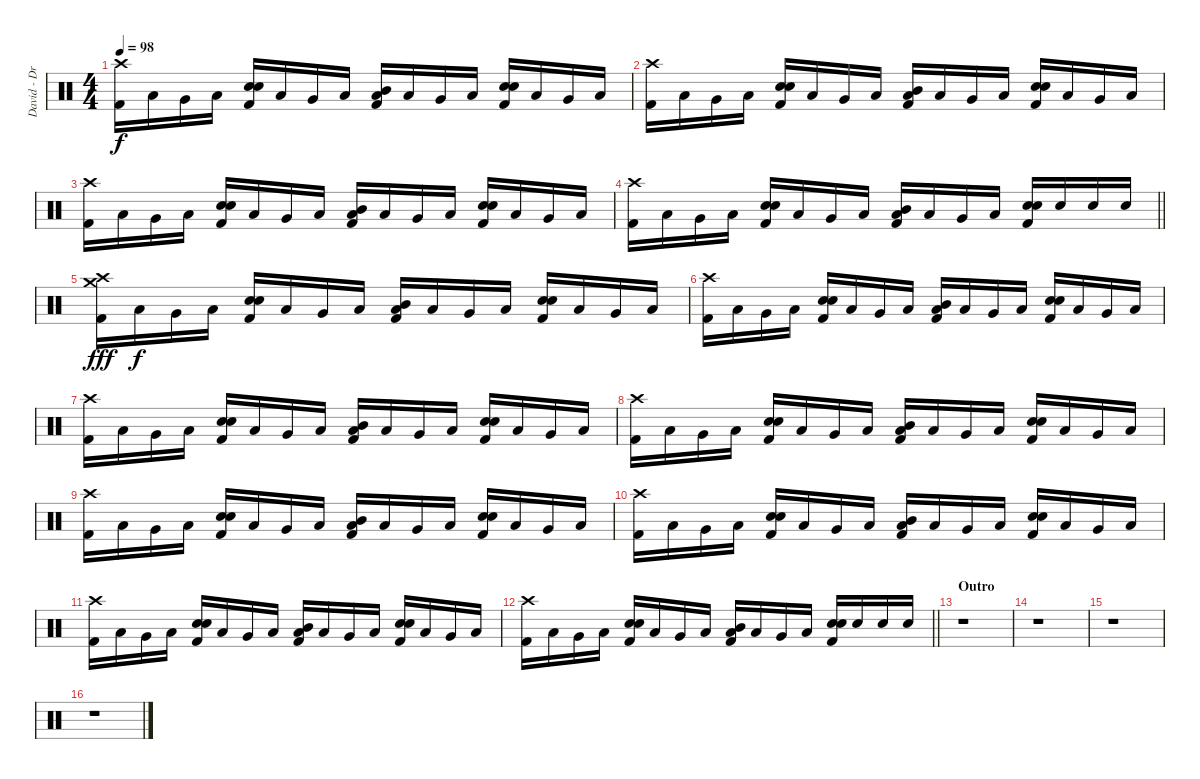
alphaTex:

\track ("David - Drums" "David - Dr") {instrument percussion}
\staff {score}
\articulation defaults
\ts (4 4)
\tempo 98
\clef neutral
\ks c
("Crash high (hit)" "Kick (hit) 2").16{dy f} "Low Tom (hit)".16 "Very Low Tom (hit)".16 "Low Floor Tom (hit)".16 ("Electric Snare (hit)" "Electric Snare (hit)" "Kick (hit) 2").16{bd 240} "Low Tom (hit)".16 "Very Low Tom (hit)".16 "Low Floor Tom (hit)".16 ("Mid Tom (hit)" "Low Tom (hit)" "Kick (hit) 2").16{bd 240} "Low Tom (hit)".16 "Very Low Tom (hit)".16 "Low Floor Tom (hit)".16 ("Electric Snare (hit)" "Electric Snare (hit)" "Kick (hit) 2").16{bd 240} "Low Tom (hit)".16 "Very Low Tom (hit)".16 "Low Floor Tom (hit)".16 |
("Crash high (hit)" "Kick (hit) 2").16 "Low Tom (hit)".16 "Very Low Tom (hit)".16 "Low Floor Tom (hit)".16 ("Electric Snare (hit)" "Electric Snare (hit)" "Kick (hit) 2").16{bd 240} "Low Tom (hit)".16 "Very Low Tom (hit)".16 "Low Floor Tom (hit)".16 ("Mid Tom (hit)" "Low Tom (hit)" "Kick (hit) 2").16{bd 240} "Low Tom (hit)".16 "Very Low Tom (hit)".16 "Low Floor Tom (hit)".16 ("Electric Snare (hit)" "Electric Snare (hit)" "Kick (hit) 2").16{bd 240} "Low Tom (hit)".16 "Very Low Tom (hit)".16 "Low Floor Tom (hit)".16 |
("Crash high (hit)" "Kick (hit) 2").16 "Low Tom (hit)".16 "Very Low Tom (hit)".16 "Low Floor Tom (hit)".16 ("Electric Snare (hit)" "Electric Snare (hit)" "Kick (hit) 2").16{bd 240} "Low Tom (hit)".16 "Very Low Tom (hit)".16 "Low Floor Tom (hit)".16 ("Mid Tom (hit)" "Low Tom (hit)" "Kick (hit) 2").16{bd 240} "Low Tom (hit)".16 "Very Low Tom (hit)".16 "Low Floor Tom (hit)".16 ("Electric Snare (hit)" "Electric Snare (hit)" "Kick (hit) 2").16{bd 240} "Low Tom (hit)".16 "Very Low Tom (hit)".16 "Low Floor Tom (hit)".16 |
\barLineRight lightlight
("Crash high (hit)" "Kick (hit) 2").16 "Low Tom (hit)".16 "Very Low Tom (hit)".16 "Low Floor Tom (hit)".16 ("Electric Snare (hit)" "Electric Snare (hit)" "Kick (hit) 2").16{bd 240} "Low Tom (hit)".16 "Very Low Tom (hit)".16 "Low Floor Tom (hit)".16 ("Mid Tom (hit)" "Low Tom (hit)" "Kick (hit) 2").16{bd 240} "Low Tom (hit)".16 "Very Low Tom (hit)".16 "Low Floor Tom (hit)".16 ("Electric Snare (hit)" "Electric Snare (hit)" "Kick (hit) 2").16{bd 240} "Electric Snare (hit)".16 "Electric Snare (hit)".16 "Electric Snare (hit)".16 |
("Crash medium (hit)" "Crash high (hit)" "Kick (hit) 2").16{dy fff} "Low Tom (hit)".16{dy f} "Very Low Tom (hit)".16 "Low Floor Tom (hit)".16 ("Electric Snare (hit)" "Electric Snare (hit)" "Kick (hit) 2").16{bd 240} "Low Tom (hit)".16 "Very Low Tom (hit)".16 "Low Floor Tom (hit)".16 ("Mid Tom (hit)" "Low Tom (hit)" "Kick (hit) 2").16{bd 240} "Low Tom (hit)".16 "Very Low Tom (hit)".16 "Low Floor Tom (hit)".16 ("Electric Snare (hit)" "Electric Snare (hit)" "Kick (hit) 2").16{bd 240} "Low Tom (hit)".16 "Very Low Tom (hit)".16 "Low Floor Tom (hit)".16 |
("Crash high (hit)" "Kick (hit) 2").16 "Low Tom (hit)".16 "Very Low Tom (hit)".16 "Low Floor Tom (hit)".16 ("Electric Snare (hit)" "Electric Snare (hit)" "Kick (hit) 2").16{bd 240} "Low Tom (hit)".16 "Very Low Tom (hit)".16 "Low Floor Tom (hit)".16 ("Mid Tom (hit)" "Low Tom (hit)" "Kick (hit) 2").16{bd 240} "Low Tom (hit)".16 "Very Low Tom (hit)".16 "Low Floor Tom (hit)".16 ("Electric Snare (hit)" "Electric Snare (hit)" "Kick (hit) 2").16{bd 240} "Low Tom (hit)".16 "Very Low Tom (hit)".16 "Low Floor Tom (hit)".16 |
("Crash high (hit)" "Kick (hit) 2").16 "Low Tom (hit)".16 "Very Low Tom (hit)".16 "Low Floor Tom (hit)".16 ("Electric Snare (hit)" "Electric Snare (hit)" "Kick (hit) 2").16{bd 240} "Low Tom (hit)".16 "Very Low Tom (hit)".16 "Low Floor Tom (hit)".16 ("Mid Tom (hit)" "Low Tom (hit)" "Kick (hit) 2").16{bd 240} "Low Tom (hit)".16 "Very Low Tom (hit)".16 "Low Floor Tom (hit)".16 ("Electric Snare (hit)" "Electric Snare (hit)" "Kick (hit) 2").16{bd 240} "Low Tom (hit)".16 "Very Low Tom (hit)".16 "Low Floor Tom (hit)".16 |
("Crash high (hit)" "Kick (hit) 2").16 "Low Tom (hit)".16 "Very Low Tom (hit)".16 "Low Floor Tom (hit)".16 ("Electric Snare (hit)" "Electric Snare (hit)" "Kick (hit) 2").16{bd 240} "Low Tom (hit)".16 "Very Low Tom (hit)".16 "Low Floor Tom (hit)".16 ("Mid Tom (hit)" "Low Tom (hit)" "Kick (hit) 2").16{bd 240} "Low Tom (hit)".16 "Very Low Tom (hit)".16 "Low Floor Tom (hit)".16 ("Electric Snare (hit)" "Electric Snare (hit)" "Kick (hit) 2").16{bd 240} "Low Tom (hit)".16 "Very Low Tom (hit)".16 "Low Floor Tom (hit)".16 |
("Crash high (hit)" "Kick (hit) 2").16 "Low Tom (hit)".16 "Very Low Tom (hit)".16 "Low Floor Tom (hit)".16 ("Electric Snare (hit)" "Electric Snare (hit)" "Kick (hit) 2").16{bd 240} "Low Tom (hit)".16 "Very Low Tom (hit)".16 "Low Floor Tom (hit)".16 ("Mid Tom (hit)" "Low Tom (hit)" "Kick (hit) 2").16{bd 240} "Low Tom (hit)".16 "Very Low Tom (hit)".16 "Low Floor Tom (hit)".16 ("Electric Snare (hit)" "Electric Snare (hit)" "Kick (hit) 2").16{bd 240} "Low Tom (hit)".16 "Very Low Tom (hit)".16 "Low Floor Tom (hit)".16 |
("Crash high (hit)" "Kick (hit) 2").16 "Low Tom (hit)".16 "Very Low Tom (hit)".16 "Low Floor Tom (hit)".16 ("Electric Snare (hit)" "Electric Snare (hit)" "Kick (hit) 2").16{bd 240} "Low Tom (hit)".16 "Very Low Tom (hit)".16 "Low Floor Tom (hit)".16 ("Mid Tom (hit)" "Low Tom (hit)" "Kick (hit) 2").16{bd 240} "Low Tom (hit)".16 "Very Low Tom (hit)".16 "Low Floor Tom (hit)".16 ("Electric Snare (hit)" "Electric Snare (hit)" "Kick (hit) 2").16{bd 240} "Low Tom (hit)".16 "Very Low Tom (hit)".16 "Low Floor Tom (hit)".16 |
("Crash high (hit)" "Kick (hit) 2").16 "Low Tom (hit)".16 "Very Low Tom (hit)".16 "Low Floor Tom (hit)".16 ("Electric Snare (hit)" "Electric Snare (hit)" "Kick (hit) 2").16{bd 240} "Low Tom (hit)".16 "Very Low Tom (hit)".16 "Low Floor Tom (hit)".16 ("Mid Tom (hit)" "Low Tom (hit)" "Kick (hit) 2").16{bd 240} "Low Tom (hit)".16 "Very Low Tom (hit)".16 "Low Floor Tom (hit)".16 ("Electric Snare (hit)" "Electric Snare (hit)" "Kick (hit) 2").16{bd 240} "Low Tom (hit)".16 "Very Low Tom (hit)".16 "Low Floor Tom (hit)".16 |
\barLineRight lightlight
("Crash high (hit)" "Kick (hit) 2").16 "Low Tom (hit)".16 "Very Low Tom (hit)".16 "Low Floor Tom (hit)".16 ("Electric Snare (hit)" "Electric Snare (hit)" "Kick (hit) 2").16{bd 240} "Low Tom (hit)".16 "Very Low Tom (hit)".16 "Low Floor Tom (hit)".16 ("Mid Tom (hit)" "Low Tom (hit)" "Kick (hit) 2").16{bd 240} "Low Tom (hit)".16 "Very Low Tom (hit)".16 "Low Floor Tom (hit)".16 ("Electric Snare (hit)" "Electric Snare (hit)" "Kick (hit) 2").16{bd 240} "Electric Snare (hit)".16 "Electric Snare (hit)".16 "Electric Snare (hit)".16 |
\section ("" "Outro")
r.1 |
r.1 |
r.1 |
r.1
